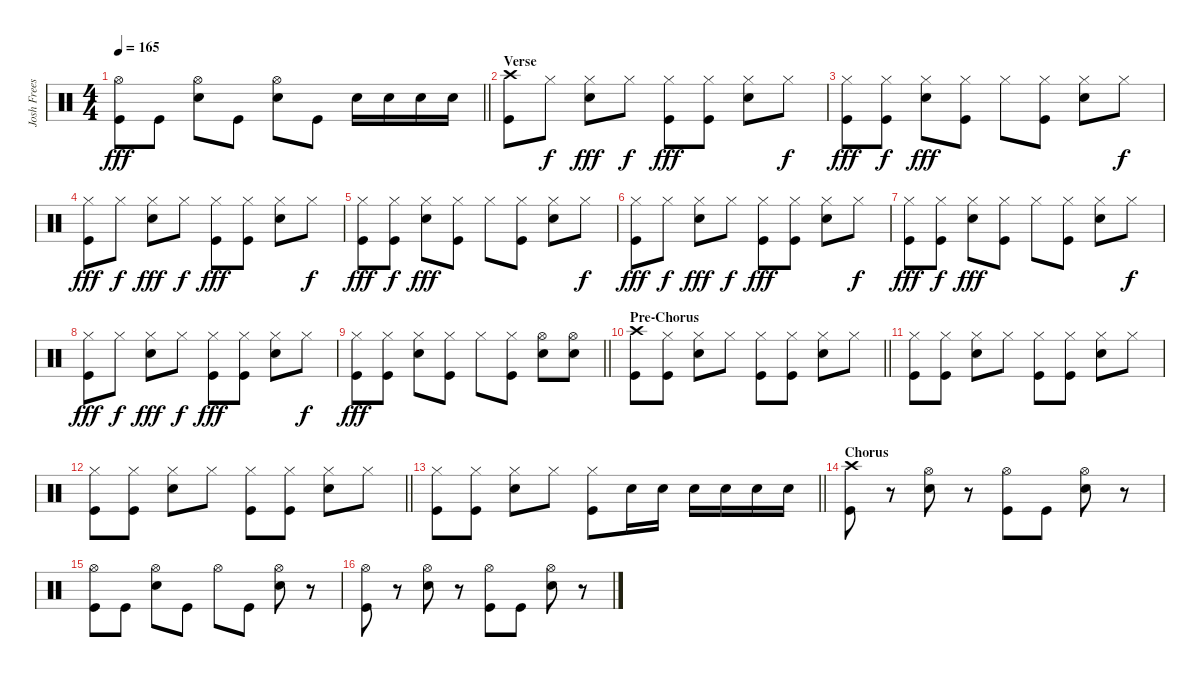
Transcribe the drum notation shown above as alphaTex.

\track ("Josh Freese" "Josh Frees") {instrument percussion}
\staff {score}
\articulation defaults
\ts (4 4)
\tempo 165
\clef neutral
\barLineRight lightlight
\ks c
("Hi-Hat (open)" "Kick (hit)").8{dy fff} "Kick (hit)".8 ("Hi-Hat (open)" "Electric Snare (hit)").8 "Kick (hit)".8 ("Hi-Hat (open)" "Electric Snare (hit)").8 "Kick (hit)".8 "Electric Snare (hit)".16 "Electric Snare (hit)".16 "Electric Snare (hit)".16 "Electric Snare (hit)".16 |
\section ("" "Verse")
("Crash high (hit)" "Kick (hit)").8 "Hi-Hat (closed)".8{dy f} ("Hi-Hat (closed)" "Electric Snare (hit)").8{dy fff} "Hi-Hat (closed)".8{dy f} ("Hi-Hat (closed)" "Kick (hit)").8{dy fff} ("Hi-Hat (closed)" "Kick (hit)").8 ("Hi-Hat (closed)" "Electric Snare (hit)").8 "Hi-Hat (closed)".8{dy f} |
("Hi-Hat (closed)" "Kick (hit)").8{dy fff} ("Hi-Hat (closed)" "Kick (hit)").8{dy f} ("Hi-Hat (closed)" "Electric Snare (hit)").8{dy fff} ("Hi-Hat (closed)" "Kick (hit)").8 "Hi-Hat (closed)".8 ("Hi-Hat (closed)" "Kick (hit)").8 ("Hi-Hat (closed)" "Electric Snare (hit)").8 "Hi-Hat (closed)".8{dy f} |
("Hi-Hat (closed)" "Kick (hit)").8{dy fff} "Hi-Hat (closed)".8{dy f} ("Hi-Hat (closed)" "Electric Snare (hit)").8{dy fff} "Hi-Hat (closed)".8{dy f} ("Hi-Hat (closed)" "Kick (hit)").8{dy fff} ("Hi-Hat (closed)" "Kick (hit)").8 ("Hi-Hat (closed)" "Electric Snare (hit)").8 "Hi-Hat (closed)".8{dy f} |
("Hi-Hat (closed)" "Kick (hit)").8{dy fff} ("Hi-Hat (closed)" "Kick (hit)").8{dy f} ("Hi-Hat (closed)" "Electric Snare (hit)").8{dy fff} ("Hi-Hat (closed)" "Kick (hit)").8 "Hi-Hat (closed)".8 ("Hi-Hat (closed)" "Kick (hit)").8 ("Hi-Hat (closed)" "Electric Snare (hit)").8 "Hi-Hat (closed)".8{dy f} |
("Hi-Hat (closed)" "Kick (hit)").8{dy fff} "Hi-Hat (closed)".8{dy f} ("Hi-Hat (closed)" "Electric Snare (hit)").8{dy fff} "Hi-Hat (closed)".8{dy f} ("Hi-Hat (closed)" "Kick (hit)").8{dy fff} ("Hi-Hat (closed)" "Kick (hit)").8 ("Hi-Hat (closed)" "Electric Snare (hit)").8 "Hi-Hat (closed)".8{dy f} |
("Hi-Hat (closed)" "Kick (hit)").8{dy fff} ("Hi-Hat (closed)" "Kick (hit)").8{dy f} ("Hi-Hat (closed)" "Electric Snare (hit)").8{dy fff} ("Hi-Hat (closed)" "Kick (hit)").8 "Hi-Hat (closed)".8 ("Hi-Hat (closed)" "Kick (hit)").8 ("Hi-Hat (closed)" "Electric Snare (hit)").8 "Hi-Hat (closed)".8{dy f} |
("Hi-Hat (closed)" "Kick (hit)").8{dy fff} "Hi-Hat (closed)".8{dy f} ("Hi-Hat (closed)" "Electric Snare (hit)").8{dy fff} "Hi-Hat (closed)".8{dy f} ("Hi-Hat (closed)" "Kick (hit)").8{dy fff} ("Hi-Hat (closed)" "Kick (hit)").8 ("Hi-Hat (closed)" "Electric Snare (hit)").8 "Hi-Hat (closed)".8{dy f} |
\barLineRight lightlight
("Hi-Hat (closed)" "Kick (hit)").8{dy fff} ("Hi-Hat (closed)" "Kick (hit)").8 ("Hi-Hat (closed)" "Electric Snare (hit)").8 ("Hi-Hat (closed)" "Kick (hit)").8 "Hi-Hat (closed)".8 ("Hi-Hat (closed)" "Kick (hit)").8 ("Hi-Hat (open)" "Electric Snare (hit)").8 ("Hi-Hat (open)" "Electric Snare (hit)").8 |
\section ("" "Pre-Chorus")
\barLineRight lightlight
("Crash high (hit)" "Kick (hit)").8 ("Hi-Hat (closed)" "Kick (hit)").8 ("Hi-Hat (closed)" "Electric Snare (hit)").8 "Hi-Hat (closed)".8 ("Hi-Hat (closed)" "Kick (hit)").8 ("Hi-Hat (closed)" "Kick (hit)").8 ("Hi-Hat (closed)" "Electric Snare (hit)").8 "Hi-Hat (closed)".8 |
("Hi-Hat (closed)" "Kick (hit)").8 ("Hi-Hat (closed)" "Kick (hit)").8 ("Hi-Hat (closed)" "Electric Snare (hit)").8 "Hi-Hat (closed)".8 ("Hi-Hat (closed)" "Kick (hit)").8 ("Hi-Hat (closed)" "Kick (hit)").8 ("Hi-Hat (closed)" "Electric Snare (hit)").8 "Hi-Hat (closed)".8 |
\barLineRight lightlight
("Hi-Hat (closed)" "Kick (hit)").8 ("Hi-Hat (closed)" "Kick (hit)").8 ("Hi-Hat (closed)" "Electric Snare (hit)").8 "Hi-Hat (closed)".8 ("Hi-Hat (closed)" "Kick (hit)").8 ("Hi-Hat (closed)" "Kick (hit)").8 ("Hi-Hat (closed)" "Electric Snare (hit)").8 "Hi-Hat (closed)".8 |
\barLineRight lightlight
("Hi-Hat (closed)" "Kick (hit)").8 ("Hi-Hat (closed)" "Kick (hit)").8 ("Hi-Hat (closed)" "Electric Snare (hit)").8 "Hi-Hat (closed)".8 ("Hi-Hat (closed)" "Kick (hit)").8 "Electric Snare (hit)".16 "Electric Snare (hit)".16 "Electric Snare (hit)".16 "Electric Snare (hit)".16 "Electric Snare (hit)".16 "Electric Snare (hit)".16 |
\section ("" "Chorus")
("Crash high (hit)" "Kick (hit)").8 r.8 ("Hi-Hat (open)" "Electric Snare (hit)").8 r.8 ("Hi-Hat (open)" "Kick (hit)").8 "Kick (hit)".8 ("Hi-Hat (open)" "Electric Snare (hit)").8 r.8 |
("Hi-Hat (open)" "Kick (hit)").8 "Kick (hit)".8 ("Hi-Hat (open)" "Electric Snare (hit)").8 "Kick (hit)".8 "Hi-Hat (open)".8 "Kick (hit)".8 ("Hi-Hat (open)" "Electric Snare (hit)").8 r.8 |
("Hi-Hat (open)" "Kick (hit)").8 r.8 ("Hi-Hat (open)" "Electric Snare (hit)").8 r.8 ("Hi-Hat (open)" "Kick (hit)").8 "Kick (hit)".8 ("Hi-Hat (open)" "Electric Snare (hit)").8 r.8
